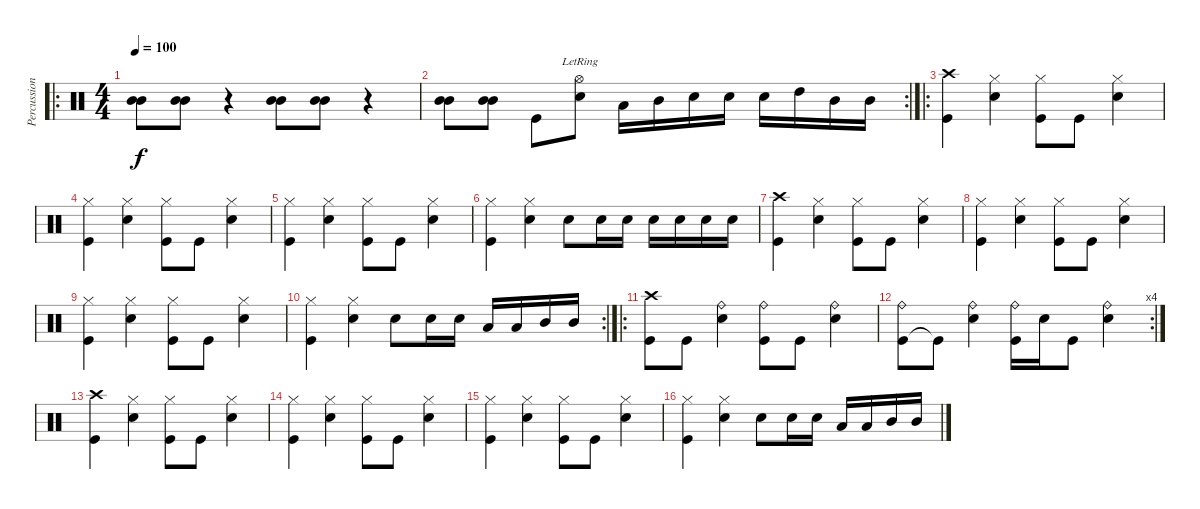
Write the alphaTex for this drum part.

\track ("Percussion" "Percussion") {instrument percussion}
\staff {score}
\articulation defaults
\ro
\ts (4 4)
\tempo 100
\clef neutral
\ks c
("Mid Tom (hit)" "Mid Tom (hit)").8{dy f} ("Mid Tom (hit)" "Mid Tom (hit)").8 r.4 ("Mid Tom (hit)" "Mid Tom (hit)").8 ("Mid Tom (hit)" "Mid Tom (hit)").8 r.4 |
\rc 2
("Mid Tom (hit)" "Mid Tom (hit)").8 ("Mid Tom (hit)" "Mid Tom (hit)").8 "Kick (hit)".8 ("Snare (hit) 2" "Hi-Hat (open)"{lr}).8 "Low Tom (hit)".16 "Mid Tom (hit)".16 "Snare (hit) 2".16 "Snare (hit) 2".16 "Snare (hit) 2".16 "High Tom (hit)".16 "Mid Tom (hit)".16 "Mid Tom (hit)".16 |
\ro
("Kick (hit)" "Crash high (hit)").4 ("Snare (hit) 2" "Hi-Hat (closed)").4 ("Kick (hit)" "Hi-Hat (closed)").8 "Kick (hit)".8 ("Snare (hit) 2" "Hi-Hat (closed)").4 |
("Kick (hit)" "Hi-Hat (closed)").4 ("Snare (hit) 2" "Hi-Hat (closed)").4 ("Kick (hit)" "Hi-Hat (closed)").8 "Kick (hit)".8 ("Snare (hit) 2" "Hi-Hat (closed)").4 |
("Kick (hit)" "Hi-Hat (closed)").4 ("Snare (hit) 2" "Hi-Hat (closed)").4 ("Kick (hit)" "Hi-Hat (closed)").8 "Kick (hit)".8 ("Snare (hit) 2" "Hi-Hat (closed)").4 |
("Kick (hit)" "Hi-Hat (closed)").4 ("Snare (hit) 2" "Hi-Hat (closed)").4 "Snare (hit) 2".8 "Snare (hit) 2".16 "Snare (hit) 2".16 "Snare (hit) 2".16 "Snare (hit) 2".16 "Snare (hit) 2".16 "Snare (hit) 2".16 |
("Kick (hit)" "Crash high (hit)").4 ("Snare (hit) 2" "Hi-Hat (closed)").4 ("Kick (hit)" "Hi-Hat (closed)").8 "Kick (hit)".8 ("Snare (hit) 2" "Hi-Hat (closed)").4 |
("Kick (hit)" "Hi-Hat (closed)").4 ("Snare (hit) 2" "Hi-Hat (closed)").4 ("Kick (hit)" "Hi-Hat (closed)").8 "Kick (hit)".8 ("Snare (hit) 2" "Hi-Hat (closed)").4 |
("Kick (hit)" "Hi-Hat (closed)").4 ("Snare (hit) 2" "Hi-Hat (closed)").4 ("Kick (hit)" "Hi-Hat (closed)").8 "Kick (hit)".8 ("Snare (hit) 2" "Hi-Hat (closed)").4 |
\rc 2
("Kick (hit)" "Hi-Hat (closed)").4 ("Snare (hit) 2" "Hi-Hat (closed)").4 "Snare (hit) 2".8 "Snare (hit) 2".16 "Snare (hit) 2".16 "Low Tom (hit)".16 "Low Tom (hit)".16 "Mid Tom (hit)".16 "Mid Tom (hit)".16 |
\ro
("Kick (hit)" "Crash high (hit)").8 "Kick (hit)".8 ("Snare (hit) 2" "Ride (bell)").4 ("Kick (hit)" "Ride (bell)").8 "Kick (hit)".8 ("Snare (hit) 2" "Ride (bell)").4 |
\rc 4
("Kick (hit)" "Ride (bell)").8 "Kick (hit)"{t}.8 ("Snare (hit) 2" "Ride (bell)").4 ("Kick (hit)" "Ride (bell)").16 "Snare (hit) 2".16 "Kick (hit)".8 ("Snare (hit) 2" "Ride (bell)").4 |
("Kick (hit)" "Crash high (hit)").4 ("Snare (hit) 2" "Hi-Hat (closed)").4 ("Kick (hit)" "Hi-Hat (closed)").8 "Kick (hit)".8 ("Snare (hit) 2" "Hi-Hat (closed)").4 |
("Kick (hit)" "Hi-Hat (closed)").4 ("Snare (hit) 2" "Hi-Hat (closed)").4 ("Kick (hit)" "Hi-Hat (closed)").8 "Kick (hit)".8 ("Snare (hit) 2" "Hi-Hat (closed)").4 |
("Kick (hit)" "Hi-Hat (closed)").4 ("Snare (hit) 2" "Hi-Hat (closed)").4 ("Kick (hit)" "Hi-Hat (closed)").8 "Kick (hit)".8 ("Snare (hit) 2" "Hi-Hat (closed)").4 |
("Kick (hit)" "Hi-Hat (closed)").4 ("Snare (hit) 2" "Hi-Hat (closed)").4 "Snare (hit) 2".8 "Snare (hit) 2".16 "Snare (hit) 2".16 "Low Tom (hit)".16 "Low Tom (hit)".16 "Mid Tom (hit)".16 "Mid Tom (hit)".16
